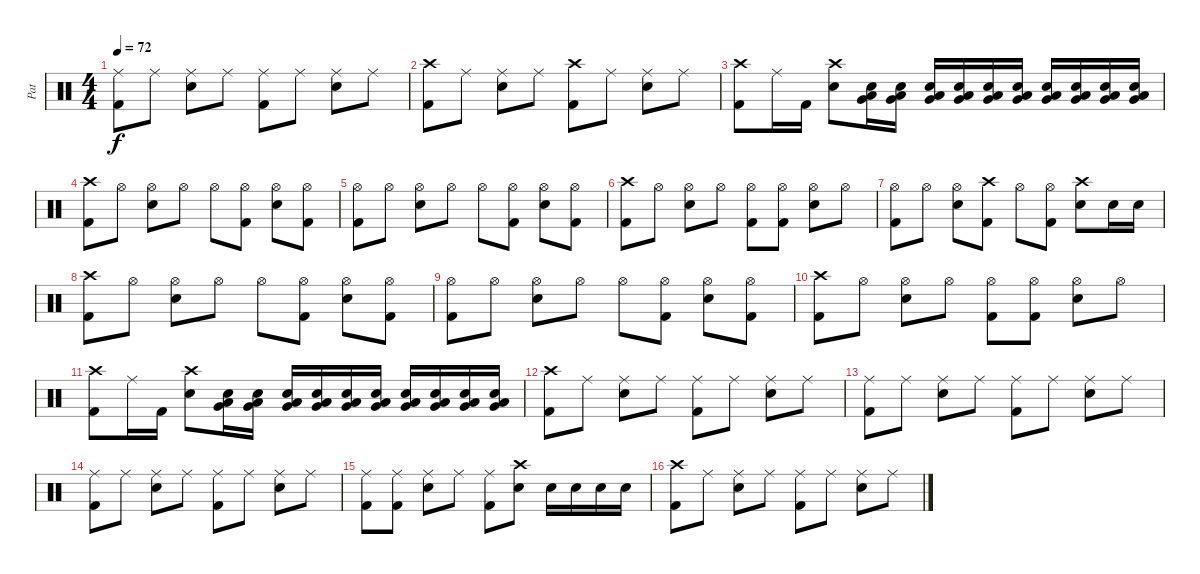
\track ("Pat" "Pat") {instrument percussion}
\staff {score}
\articulation defaults
\ts (4 4)
\tempo 72
\clef neutral
\ks c
("Ride (middle)" "Kick (hit) 2").8{dy f} "Ride (middle)".8 ("Ride (middle)" "Electric Snare (hit)").8 "Ride (middle)".8 ("Ride (middle)" "Kick (hit) 2").8 "Ride (middle)".8 ("Ride (middle)" "Electric Snare (hit)").8 "Ride (middle)".8 |
("Crash high (hit)" "Kick (hit) 2").8 "Ride (middle)".8 ("Ride (middle)" "Electric Snare (hit)").8 "Ride (middle)".8 ("Crash high (hit)" "Kick (hit) 2").8 "Ride (middle)".8 ("Ride (middle)" "Electric Snare (hit)").8 "Ride (middle)".8 |
("Crash high (hit)" "Kick (hit) 2").8 "Ride (middle)".16 "Kick (hit) 2".16 ("Crash high (hit)" "Electric Snare (hit)").8 ("Electric Snare (hit)" "Low Floor Tom (hit)" "Very Low Tom (hit)").16 ("Electric Snare (hit)" "Low Floor Tom (hit)" "Very Low Tom (hit)").16 ("Electric Snare (hit)" "Low Floor Tom (hit)" "Very Low Tom (hit)").16 ("Electric Snare (hit)" "Low Floor Tom (hit)" "Very Low Tom (hit)").16 ("Electric Snare (hit)" "Low Floor Tom (hit)" "Very Low Tom (hit)").16 ("Electric Snare (hit)" "Low Floor Tom (hit)" "Very Low Tom (hit)").16 ("Electric Snare (hit)" "Low Floor Tom (hit)" "Very Low Tom (hit)").16 ("Electric Snare (hit)" "Low Floor Tom (hit)" "Very Low Tom (hit)").16 ("Electric Snare (hit)" "Low Floor Tom (hit)" "Very Low Tom (hit)").16 ("Electric Snare (hit)" "Low Floor Tom (hit)" "Very Low Tom (hit)").16 |
("Crash high (hit)" "Kick (hit) 2").8 "Hi-Hat (open)".8 ("Hi-Hat (open)" "Electric Snare (hit)").8 "Hi-Hat (open)".8 "Hi-Hat (open)".8 ("Hi-Hat (open)" "Kick (hit) 2").8 ("Hi-Hat (open)" "Electric Snare (hit)").8 ("Hi-Hat (open)" "Kick (hit) 2").8 |
("Hi-Hat (open)" "Kick (hit) 2").8 "Hi-Hat (open)".8 ("Hi-Hat (open)" "Electric Snare (hit)").8 "Hi-Hat (open)".8 "Hi-Hat (open)".8 ("Hi-Hat (open)" "Kick (hit) 2").8 ("Hi-Hat (open)" "Electric Snare (hit)").8 ("Hi-Hat (open)" "Kick (hit) 2").8 |
("Crash high (hit)" "Kick (hit) 2").8 "Hi-Hat (open)".8 ("Hi-Hat (open)" "Electric Snare (hit)").8 "Hi-Hat (open)".8 ("Hi-Hat (open)" "Kick (hit) 2").8 ("Hi-Hat (open)" "Kick (hit) 2").8 ("Hi-Hat (open)" "Electric Snare (hit)").8 "Hi-Hat (open)".8 |
("Hi-Hat (open)" "Kick (hit) 2").8 "Hi-Hat (open)".8 ("Hi-Hat (open)" "Electric Snare (hit)").8 ("Crash high (hit)" "Kick (hit) 2").8 "Hi-Hat (open)".8 ("Hi-Hat (open)" "Kick (hit) 2").8 ("Crash high (hit)" "Electric Snare (hit)").8 "Electric Snare (hit)".16 "Electric Snare (hit)".16 |
("Crash high (hit)" "Kick (hit) 2").8 "Hi-Hat (open)".8 ("Hi-Hat (open)" "Electric Snare (hit)").8 "Hi-Hat (open)".8 "Hi-Hat (open)".8 ("Hi-Hat (open)" "Kick (hit) 2").8 ("Hi-Hat (open)" "Electric Snare (hit)").8 ("Hi-Hat (open)" "Kick (hit) 2").8 |
("Hi-Hat (open)" "Kick (hit) 2").8 "Hi-Hat (open)".8 ("Hi-Hat (open)" "Electric Snare (hit)").8 "Hi-Hat (open)".8 "Hi-Hat (open)".8 ("Hi-Hat (open)" "Kick (hit) 2").8 ("Hi-Hat (open)" "Electric Snare (hit)").8 ("Hi-Hat (open)" "Kick (hit) 2").8 |
("Crash high (hit)" "Kick (hit) 2").8 "Hi-Hat (open)".8 ("Hi-Hat (open)" "Electric Snare (hit)").8 "Hi-Hat (open)".8 ("Hi-Hat (open)" "Kick (hit) 2").8 ("Hi-Hat (open)" "Kick (hit) 2").8 ("Hi-Hat (open)" "Electric Snare (hit)").8 "Hi-Hat (open)".8 |
("Crash high (hit)" "Kick (hit) 2").8 "Ride (middle)".16 "Kick (hit) 2".16 ("Crash high (hit)" "Electric Snare (hit)").8 ("Electric Snare (hit)" "Low Floor Tom (hit)" "Very Low Tom (hit)").16 ("Electric Snare (hit)" "Low Floor Tom (hit)" "Very Low Tom (hit)").16 ("Electric Snare (hit)" "Low Floor Tom (hit)" "Very Low Tom (hit)").16 ("Electric Snare (hit)" "Low Floor Tom (hit)" "Very Low Tom (hit)").16 ("Electric Snare (hit)" "Low Floor Tom (hit)" "Very Low Tom (hit)").16 ("Electric Snare (hit)" "Low Floor Tom (hit)" "Very Low Tom (hit)").16 ("Electric Snare (hit)" "Low Floor Tom (hit)" "Very Low Tom (hit)").16 ("Electric Snare (hit)" "Low Floor Tom (hit)" "Very Low Tom (hit)").16 ("Electric Snare (hit)" "Low Floor Tom (hit)" "Very Low Tom (hit)").16 ("Electric Snare (hit)" "Low Floor Tom (hit)" "Very Low Tom (hit)").16 |
("Crash high (hit)" "Kick (hit) 2").8 "Ride (middle)".8 ("Ride (middle)" "Electric Snare (hit)").8 "Ride (middle)".8 ("Ride (middle)" "Kick (hit) 2").8 "Ride (middle)".8 ("Ride (middle)" "Electric Snare (hit)").8 "Ride (middle)".8 |
("Ride (middle)" "Kick (hit) 2").8 "Ride (middle)".8 ("Ride (middle)" "Electric Snare (hit)").8 "Ride (middle)".8 ("Ride (middle)" "Kick (hit) 2").8 "Ride (middle)".8 ("Ride (middle)" "Electric Snare (hit)").8 "Ride (middle)".8 |
("Ride (middle)" "Kick (hit) 2").8 "Ride (middle)".8 ("Ride (middle)" "Electric Snare (hit)").8 "Ride (middle)".8 ("Ride (middle)" "Kick (hit) 2").8 "Ride (middle)".8 ("Ride (middle)" "Electric Snare (hit)").8 "Ride (middle)".8 |
("Ride (middle)" "Kick (hit) 2").8 ("Ride (middle)" "Kick (hit) 2").8 ("Ride (middle)" "Electric Snare (hit)").8 "Ride (middle)".8 ("Ride (middle)" "Kick (hit) 2").8 ("Crash high (hit)" "Electric Snare (hit)").8 "Electric Snare (hit)".16 "Electric Snare (hit)".16 "Electric Snare (hit)".16 "Electric Snare (hit)".16 |
("Crash high (hit)" "Kick (hit) 2").8 "Ride (middle)".8 ("Ride (middle)" "Electric Snare (hit)").8 "Ride (middle)".8 ("Ride (middle)" "Kick (hit) 2").8 "Ride (middle)".8 ("Ride (middle)" "Electric Snare (hit)").8 "Ride (middle)".8
